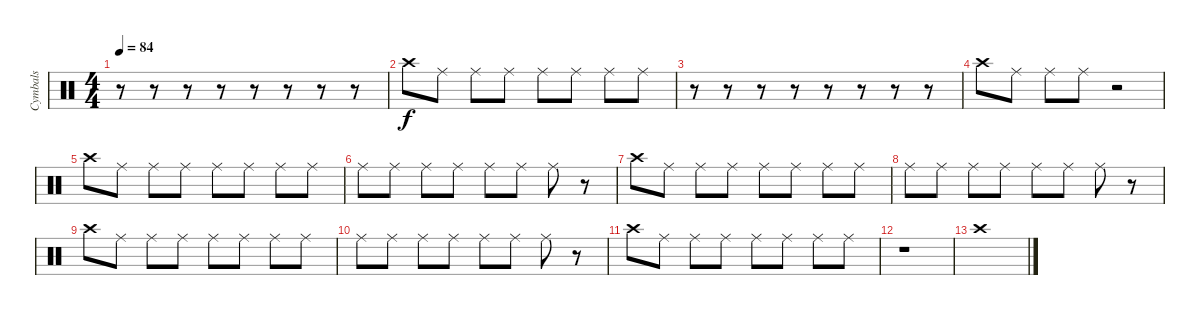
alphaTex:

\track ("Cymbals" "Cymbals") {instrument percussion}
\staff {score}
\articulation defaults
\ts (4 4)
\tempo 84
\clef neutral
\ks c
r.8{dy f} r.8 r.8 r.8 r.8 r.8 r.8 r.8 |
"Crash high (hit)".8 "Ride (middle)".8 "Ride (middle)".8 "Ride (middle)".8 "Ride (middle)".8 "Ride (middle)".8 "Ride (middle)".8 "Ride (middle)".8 |
r.8 r.8 r.8 r.8 r.8 r.8 r.8 r.8 |
"Crash high (hit)".8 "Ride (middle)".8 "Ride (middle)".8 "Ride (middle)".8 r.2 |
"Crash high (hit)".8 "Ride (middle)".8 "Ride (middle)".8 "Ride (middle)".8 "Ride (middle)".8 "Ride (middle)".8 "Ride (middle)".8 "Ride (middle)".8 |
"Ride (middle)".8 "Ride (middle)".8 "Ride (middle)".8 "Ride (middle)".8 "Ride (middle)".8 "Ride (middle)".8 "Ride (middle)".8 r.8 |
"Crash high (hit)".8 "Ride (middle)".8 "Ride (middle)".8 "Ride (middle)".8 "Ride (middle)".8 "Ride (middle)".8 "Ride (middle)".8 "Ride (middle)".8 |
"Ride (middle)".8 "Ride (middle)".8 "Ride (middle)".8 "Ride (middle)".8 "Ride (middle)".8 "Ride (middle)".8 "Ride (middle)".8 r.8 |
"Crash high (hit)".8 "Ride (middle)".8 "Ride (middle)".8 "Ride (middle)".8 "Ride (middle)".8 "Ride (middle)".8 "Ride (middle)".8 "Ride (middle)".8 |
"Ride (middle)".8 "Ride (middle)".8 "Ride (middle)".8 "Ride (middle)".8 "Ride (middle)".8 "Ride (middle)".8 "Ride (middle)".8 r.8 |
"Crash high (hit)".8 "Ride (middle)".8 "Ride (middle)".8 "Ride (middle)".8 "Ride (middle)".8 "Ride (middle)".8 "Ride (middle)".8 "Ride (middle)".8 |
r.1 |
"Crash high (hit)".1
